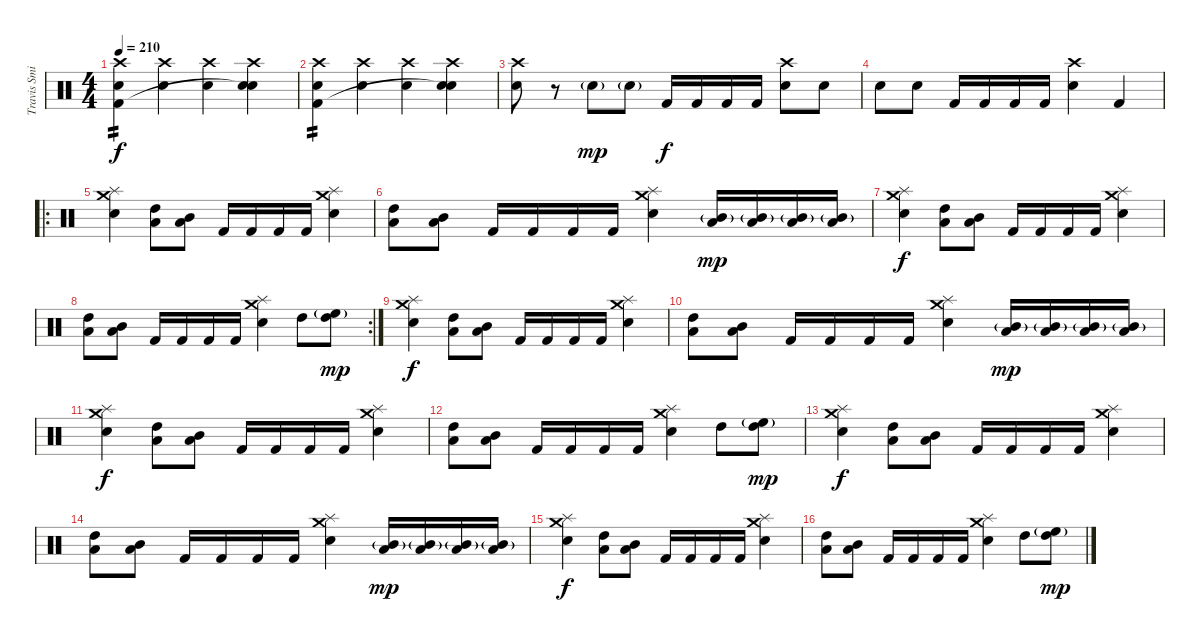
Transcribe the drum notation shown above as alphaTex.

\track ("Travis Smith" "Travis Smi") {instrument percussion}
\staff {score}
\articulation defaults
\ts (4 4)
\tempo 210
\clef neutral
\ks c
("Crash high (hit)" "Electric Snare (hit)" "Kick (hit) 2").4{tp 2 dy f} ("Crash high (hit)" "Electric Snare (hit)").4 ("Crash high (hit)" "Electric Snare (hit)").4 ("Crash high (hit)" "Electric Snare (hit)" "Snare (hit)"{t}).4 |
("Crash high (hit)" "Electric Snare (hit)" "Kick (hit) 2").4{tp 2} ("Crash high (hit)" "Electric Snare (hit)").4 ("Crash high (hit)" "Electric Snare (hit)").4 ("Crash high (hit)" "Electric Snare (hit)" "Snare (hit)"{t}).4 |
("Crash high (hit)" "Electric Snare (hit)").8 r.8 "Electric Snare (hit)"{g}.8{dy mp} "Electric Snare (hit)"{g}.8 "Kick (hit) 2".16{dy f} "Kick (hit) 2".16 "Kick (hit) 2".16 "Kick (hit) 2".16 ("Crash high (hit)" "Electric Snare (hit)").8 "Electric Snare (hit)".8 |
"Electric Snare (hit)".8 "Electric Snare (hit)".8 "Kick (hit) 2".16 "Kick (hit) 2".16 "Kick (hit) 2".16 "Kick (hit) 2".16 ("Crash high (hit)" "Electric Snare (hit)").4 "Kick (hit) 2".4 |
\ro
("Crash medium (hit)" "Splash (hit)" "Electric Snare (hit)").4 ("High Tom (hit)" "Low Tom (hit)").8 ("Mid Tom (hit)" "Low Tom (hit)").8 "Kick (hit) 2".16 "Kick (hit) 2".16 "Kick (hit) 2".16 "Kick (hit) 2".16 ("Crash medium (hit)" "Splash (hit)" "Electric Snare (hit)").4 |
("High Tom (hit)" "Low Tom (hit)").8 ("Mid Tom (hit)" "Low Tom (hit)").8 "Kick (hit) 2".16 "Kick (hit) 2".16 "Kick (hit) 2".16 "Kick (hit) 2".16 ("Crash medium (hit)" "Splash (hit)" "Electric Snare (hit)").4 ("Mid Tom (hit)"{g} "Low Tom (hit)").16{dy mp} ("Mid Tom (hit)"{g} "Low Tom (hit)").16 ("Mid Tom (hit)"{g} "Low Tom (hit)").16 ("Mid Tom (hit)"{g} "Low Tom (hit)").16 |
("Crash medium (hit)" "Splash (hit)" "Electric Snare (hit)").4{dy f} ("High Tom (hit)" "Low Tom (hit)").8 ("Mid Tom (hit)" "Low Tom (hit)").8 "Kick (hit) 2".16 "Kick (hit) 2".16 "Kick (hit) 2".16 "Kick (hit) 2".16 ("Crash medium (hit)" "Splash (hit)" "Electric Snare (hit)").4 |
\rc 2
("High Tom (hit)" "Low Tom (hit)").8 ("Mid Tom (hit)" "Low Tom (hit)").8 "Kick (hit) 2".16 "Kick (hit) 2".16 "Kick (hit) 2".16 "Kick (hit) 2".16 ("Crash medium (hit)" "Splash (hit)" "Electric Snare (hit)").4 "High Tom (hit)".8 ("High Floor Tom (hit)"{g} "High Tom (hit)").8{dy mp} |
("Crash medium (hit)" "Splash (hit)" "Electric Snare (hit)").4{dy f} ("High Tom (hit)" "Low Tom (hit)").8 ("Mid Tom (hit)" "Low Tom (hit)").8 "Kick (hit) 2".16 "Kick (hit) 2".16 "Kick (hit) 2".16 "Kick (hit) 2".16 ("Crash medium (hit)" "Splash (hit)" "Electric Snare (hit)").4 |
("High Tom (hit)" "Low Tom (hit)").8 ("Mid Tom (hit)" "Low Tom (hit)").8 "Kick (hit) 2".16 "Kick (hit) 2".16 "Kick (hit) 2".16 "Kick (hit) 2".16 ("Crash medium (hit)" "Splash (hit)" "Electric Snare (hit)").4 ("Mid Tom (hit)"{g} "Low Tom (hit)").16{dy mp} ("Mid Tom (hit)"{g} "Low Tom (hit)").16 ("Mid Tom (hit)"{g} "Low Tom (hit)").16 ("Mid Tom (hit)"{g} "Low Tom (hit)").16 |
("Crash medium (hit)" "Splash (hit)" "Electric Snare (hit)").4{dy f} ("High Tom (hit)" "Low Tom (hit)").8 ("Mid Tom (hit)" "Low Tom (hit)").8 "Kick (hit) 2".16 "Kick (hit) 2".16 "Kick (hit) 2".16 "Kick (hit) 2".16 ("Crash medium (hit)" "Splash (hit)" "Electric Snare (hit)").4 |
("High Tom (hit)" "Low Tom (hit)").8 ("Mid Tom (hit)" "Low Tom (hit)").8 "Kick (hit) 2".16 "Kick (hit) 2".16 "Kick (hit) 2".16 "Kick (hit) 2".16 ("Crash medium (hit)" "Splash (hit)" "Electric Snare (hit)").4 "High Tom (hit)".8 ("High Floor Tom (hit)"{g} "High Tom (hit)").8{dy mp} |
("Crash medium (hit)" "Splash (hit)" "Electric Snare (hit)").4{dy f} ("High Tom (hit)" "Low Tom (hit)").8 ("Mid Tom (hit)" "Low Tom (hit)").8 "Kick (hit) 2".16 "Kick (hit) 2".16 "Kick (hit) 2".16 "Kick (hit) 2".16 ("Crash medium (hit)" "Splash (hit)" "Electric Snare (hit)").4 |
("High Tom (hit)" "Low Tom (hit)").8 ("Mid Tom (hit)" "Low Tom (hit)").8 "Kick (hit) 2".16 "Kick (hit) 2".16 "Kick (hit) 2".16 "Kick (hit) 2".16 ("Crash medium (hit)" "Splash (hit)" "Electric Snare (hit)").4 ("Mid Tom (hit)"{g} "Low Tom (hit)").16{dy mp} ("Mid Tom (hit)"{g} "Low Tom (hit)").16 ("Mid Tom (hit)"{g} "Low Tom (hit)").16 ("Mid Tom (hit)"{g} "Low Tom (hit)").16 |
("Crash medium (hit)" "Splash (hit)" "Electric Snare (hit)").4{dy f} ("High Tom (hit)" "Low Tom (hit)").8 ("Mid Tom (hit)" "Low Tom (hit)").8 "Kick (hit) 2".16 "Kick (hit) 2".16 "Kick (hit) 2".16 "Kick (hit) 2".16 ("Crash medium (hit)" "Splash (hit)" "Electric Snare (hit)").4 |
("High Tom (hit)" "Low Tom (hit)").8 ("Mid Tom (hit)" "Low Tom (hit)").8 "Kick (hit) 2".16 "Kick (hit) 2".16 "Kick (hit) 2".16 "Kick (hit) 2".16 ("Crash medium (hit)" "Splash (hit)" "Electric Snare (hit)").4 "High Tom (hit)".8 ("High Floor Tom (hit)"{g} "High Tom (hit)").8{dy mp}
